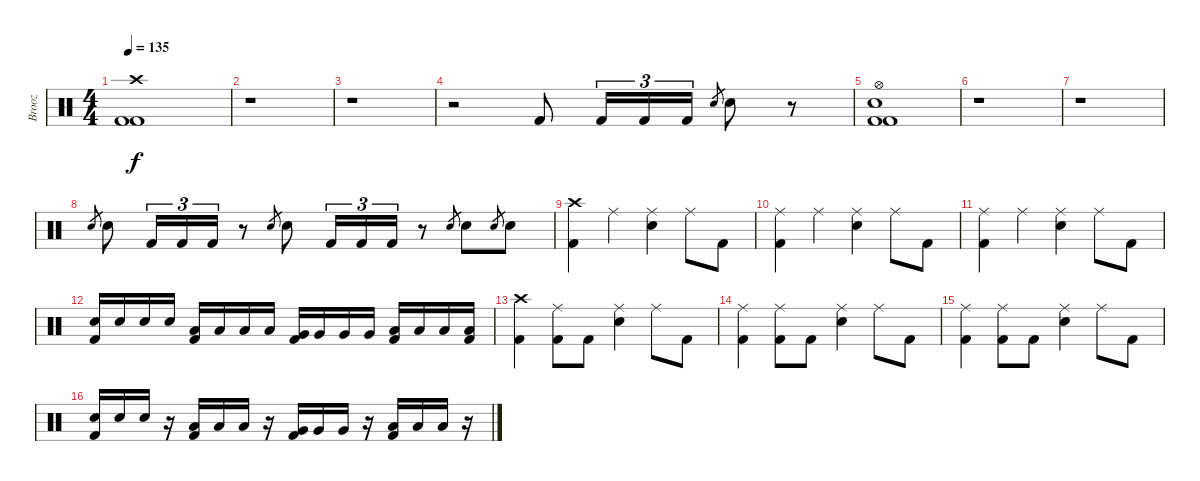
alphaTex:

\track ("Brooz" "Brooz") {instrument percussion}
\staff {score}
\articulation defaults
\ts (4 4)
\tempo 135
\clef neutral
\ks c
("Crash high (hit)" "Kick (hit) 2" "Kick (hit) 2").1{dy f} |
r.1 |
r.1 |
r.2 "Kick (hit) 2".8 "Kick (hit) 2".16{tu (3 2)} "Kick (hit) 2".16{tu (3 2)} "Kick (hit) 2".16{tu (3 2)} "Snare (hit) 2".8{gr} "Snare (hit) 2".8 r.8 |
("Hi-Hat (open)" "Electric Snare (hit)" "Kick (hit) 2" "Kick (hit) 2").1 |
r.1 |
r.1 |
"Snare (hit) 2".8{gr} "Snare (hit) 2".8 "Kick (hit) 2".16{tu (3 2)} "Kick (hit) 2".16{tu (3 2)} "Kick (hit) 2".16{tu (3 2)} r.8 "Snare (hit) 2".8{gr} "Snare (hit) 2".8 "Kick (hit) 2".16{tu (3 2)} "Kick (hit) 2".16{tu (3 2)} "Kick (hit) 2".16{tu (3 2)} r.8 "Snare (hit) 2".8{gr} "Snare (hit) 2".8 "Snare (hit) 2".8{gr} "Snare (hit) 2".8 |
("Crash high (hit)" "Kick (hit) 2").4 "Ride (middle)".4 ("Ride (middle)" "Snare (hit) 2").4 "Ride (middle)".8 "Kick (hit) 2".8 |
("Ride (middle)" "Kick (hit) 2").4 "Ride (middle)".4 ("Ride (middle)" "Snare (hit) 2").4 "Ride (middle)".8 "Kick (hit) 2".8 |
("Ride (middle)" "Kick (hit) 2").4 "Ride (middle)".4 ("Ride (middle)" "Snare (hit) 2").4 "Ride (middle)".8 "Kick (hit) 2".8 |
("Snare (hit) 2" "Kick (hit) 2").16 "Snare (hit) 2".16 "Snare (hit) 2".16 "Snare (hit) 2".16 ("Low Tom (hit)" "Kick (hit) 2").16 "Low Tom (hit)".16 "Low Tom (hit)".16 "Low Tom (hit)".16 ("Very Low Tom (hit)" "Kick (hit) 2").16 "Very Low Tom (hit)".16 "Very Low Tom (hit)".16 "Very Low Tom (hit)".16 ("Low Floor Tom (hit)" "Kick (hit) 2").16 "Low Floor Tom (hit)".16 "Low Floor Tom (hit)".16 ("Low Floor Tom (hit)" "Kick (hit) 2").16 |
("Crash high (hit)" "Kick (hit) 2").4 ("Ride (middle)" "Kick (hit) 2").8 "Kick (hit) 2".8 ("Ride (middle)" "Snare (hit) 2").4 "Ride (middle)".8 "Kick (hit) 2".8 |
("Ride (middle)" "Kick (hit) 2").4 ("Ride (middle)" "Kick (hit) 2").8 "Kick (hit) 2".8 ("Ride (middle)" "Snare (hit) 2").4 "Ride (middle)".8 "Kick (hit) 2".8 |
("Ride (middle)" "Kick (hit) 2").4 ("Ride (middle)" "Kick (hit) 2").8 "Kick (hit) 2".8 ("Ride (middle)" "Snare (hit) 2").4 "Ride (middle)".8 "Kick (hit) 2".8 |
("Snare (hit) 2" "Kick (hit) 2").16 "Snare (hit) 2".16 "Snare (hit) 2".16 r.16 ("Low Tom (hit)" "Kick (hit) 2").16 "Low Tom (hit)".16 "Low Tom (hit)".16 r.16 ("Very Low Tom (hit)" "Kick (hit) 2").16 "Very Low Tom (hit)".16 "Very Low Tom (hit)".16 r.16 ("Low Floor Tom (hit)" "Kick (hit) 2").16 "Low Floor Tom (hit)".16 "Low Floor Tom (hit)".16 r.16
